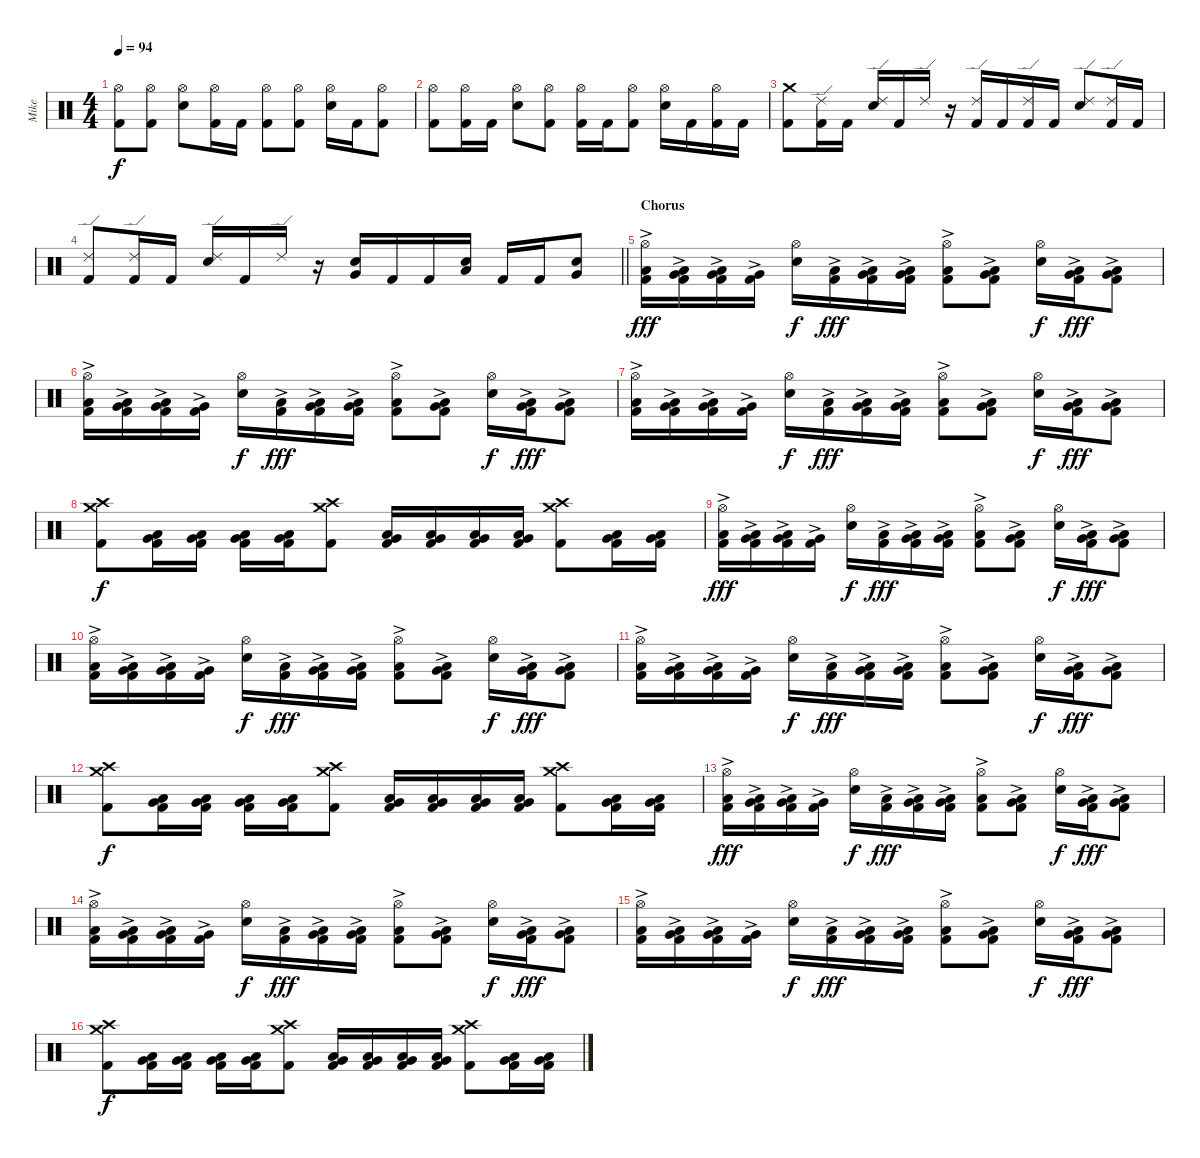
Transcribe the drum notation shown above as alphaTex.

\track ("Mike" "Mike") {instrument percussion}
\staff {score}
\articulation defaults
\ts (4 4)
\tempo 94
\clef neutral
\ks c
("Hi-Hat (open)" "Kick (hit) 2").8{dy f} ("Hi-Hat (open)" "Kick (hit) 2").8 ("Hi-Hat (open)" "Snare (hit) 2").8 ("Hi-Hat (open)" "Kick (hit) 2").16 "Kick (hit) 2".16 ("Hi-Hat (open)" "Kick (hit) 2").8 ("Hi-Hat (open)" "Kick (hit) 2").8 ("Hi-Hat (open)" "Snare (hit) 2").16 "Kick (hit) 2".16 ("Hi-Hat (open)" "Kick (hit) 2").8 |
("Hi-Hat (open)" "Kick (hit) 2").8 ("Hi-Hat (open)" "Kick (hit) 2").16 "Kick (hit) 2".16 ("Hi-Hat (open)" "Snare (hit) 2").8 ("Hi-Hat (open)" "Kick (hit) 2").8 ("Hi-Hat (open)" "Kick (hit) 2").16 "Kick (hit) 2".16 ("Hi-Hat (open)" "Kick (hit) 2").8 ("Hi-Hat (open)" "Snare (hit) 2").16 "Kick (hit) 2".16 ("Hi-Hat (open)" "Kick (hit) 2").16 "Kick (hit) 2".16 |
("Crash medium (hit)" "Kick (hit) 2").8 ("Ride (edge) 2" "Kick (hit) 2").16 "Kick (hit) 2".16 ("Ride (edge) 2" "Snare (hit) 2").16 "Kick (hit) 2".16 "Ride (edge) 2".16 r.16 ("Ride (edge) 2" "Kick (hit) 2").16 "Kick (hit) 2".16 ("Ride (edge) 2" "Kick (hit) 2").16 "Kick (hit) 2".16 ("Ride (edge) 2" "Snare (hit) 2").8 ("Ride (edge) 2" "Kick (hit) 2").16 "Kick (hit) 2".16 |
\barLineRight lightlight
("Ride (edge) 2" "Kick (hit) 2").8 ("Ride (edge) 2" "Kick (hit) 2").16 "Kick (hit) 2".16 ("Ride (edge) 2" "Snare (hit) 2").16 "Kick (hit) 2".16 "Ride (edge) 2".16 r.16 ("Very Low Tom (hit)" "Snare (hit) 2").16 "Kick (hit) 2".16 "Kick (hit) 2".16 ("Low Tom (hit)" "Snare (hit) 2").16 "Kick (hit) 2".16 "Kick (hit) 2".16 ("Very Low Tom (hit)" "Snare (hit) 2").8 |
\section ("" "Chorus")
("Hi-Hat (open)" "Low Tom (hit)"{ac} "Kick (hit) 2").16{dy fff} ("Low Tom (hit)"{ac} "Very Low Tom (hit)"{ac} "Kick (hit) 2").16 ("Very Low Tom (hit)"{ac} "Low Floor Tom (hit)"{ac} "Kick (hit) 2").16 ("Very Low Tom (hit)"{ac} "Kick (hit) 2").16 ("Hi-Hat (open)" "Snare (hit) 2").16{dy f} ("Low Tom (hit)"{ac} "Kick (hit) 2").16{dy fff} ("Low Tom (hit)"{ac} "Very Low Tom (hit)"{ac} "Kick (hit) 2").16 ("Very Low Tom (hit)"{ac} "Low Floor Tom (hit)"{ac} "Kick (hit) 2").16 ("Hi-Hat (open)" "Low Floor Tom (hit)"{ac} "Kick (hit) 2").8 ("Very Low Tom (hit)"{ac} "Low Floor Tom (hit)"{ac} "Kick (hit) 2").8 ("Hi-Hat (open)" "Snare (hit) 2").16{dy f} ("Very Low Tom (hit)"{ac} "Low Floor Tom (hit)"{ac} "Kick (hit) 2").16{dy fff} ("Very Low Tom (hit)"{ac} "Low Tom (hit)"{ac} "Kick (hit) 2").8 |
("Hi-Hat (open)" "Low Tom (hit)"{ac} "Kick (hit) 2").16 ("Low Tom (hit)"{ac} "Very Low Tom (hit)"{ac} "Kick (hit) 2").16 ("Very Low Tom (hit)"{ac} "Low Floor Tom (hit)"{ac} "Kick (hit) 2").16 ("Very Low Tom (hit)"{ac} "Kick (hit) 2").16 ("Hi-Hat (open)" "Snare (hit) 2").16{dy f} ("Low Tom (hit)"{ac} "Kick (hit) 2").16{dy fff} ("Low Tom (hit)"{ac} "Very Low Tom (hit)"{ac} "Kick (hit) 2").16 ("Very Low Tom (hit)"{ac} "Low Floor Tom (hit)"{ac} "Kick (hit) 2").16 ("Hi-Hat (open)" "Low Floor Tom (hit)"{ac} "Kick (hit) 2").8 ("Very Low Tom (hit)"{ac} "Low Floor Tom (hit)"{ac} "Kick (hit) 2").8 ("Hi-Hat (open)" "Snare (hit) 2").16{dy f} ("Very Low Tom (hit)"{ac} "Low Floor Tom (hit)"{ac} "Kick (hit) 2").16{dy fff} ("Very Low Tom (hit)"{ac} "Low Tom (hit)"{ac} "Kick (hit) 2").8 |
("Hi-Hat (open)" "Low Tom (hit)"{ac} "Kick (hit) 2").16 ("Low Tom (hit)"{ac} "Very Low Tom (hit)"{ac} "Kick (hit) 2").16 ("Very Low Tom (hit)"{ac} "Low Floor Tom (hit)"{ac} "Kick (hit) 2").16 ("Very Low Tom (hit)"{ac} "Kick (hit) 2").16 ("Hi-Hat (open)" "Snare (hit) 2").16{dy f} ("Low Tom (hit)"{ac} "Kick (hit) 2").16{dy fff} ("Low Tom (hit)"{ac} "Very Low Tom (hit)"{ac} "Kick (hit) 2").16 ("Very Low Tom (hit)"{ac} "Low Floor Tom (hit)"{ac} "Kick (hit) 2").16 ("Hi-Hat (open)" "Low Floor Tom (hit)"{ac} "Kick (hit) 2").8 ("Very Low Tom (hit)"{ac} "Low Floor Tom (hit)"{ac} "Kick (hit) 2").8 ("Hi-Hat (open)" "Snare (hit) 2").16{dy f} ("Very Low Tom (hit)"{ac} "Low Floor Tom (hit)"{ac} "Kick (hit) 2").16{dy fff} ("Very Low Tom (hit)"{ac} "Low Tom (hit)"{ac} "Kick (hit) 2").8 |
("Crash medium (hit)" "Crash high (hit)" "Kick (hit) 2").8{dy f} ("Low Tom (hit)" "Very Low Tom (hit)" "Kick (hit) 2").16 ("Low Tom (hit)" "Very Low Tom (hit)" "Kick (hit) 2").16 ("Low Tom (hit)" "Very Low Tom (hit)" "Kick (hit) 2").16 ("Low Tom (hit)" "Very Low Tom (hit)" "Kick (hit) 2").16 ("Crash medium (hit)" "Crash high (hit)" "Kick (hit) 2").8 ("Low Tom (hit)" "Very Low Tom (hit)" "Kick (hit) 2").16 ("Low Tom (hit)" "Very Low Tom (hit)" "Kick (hit) 2").16 ("Low Tom (hit)" "Very Low Tom (hit)" "Kick (hit) 2").16 ("Low Tom (hit)" "Very Low Tom (hit)" "Kick (hit) 2").16 ("Crash medium (hit)" "Crash high (hit)" "Kick (hit) 2").8 ("Low Tom (hit)" "Very Low Tom (hit)" "Kick (hit) 2").16 ("Low Tom (hit)" "Very Low Tom (hit)" "Kick (hit) 2").16 |
("Hi-Hat (open)" "Low Tom (hit)"{ac} "Kick (hit) 2").16{dy fff} ("Low Tom (hit)"{ac} "Very Low Tom (hit)"{ac} "Kick (hit) 2").16 ("Very Low Tom (hit)"{ac} "Low Floor Tom (hit)"{ac} "Kick (hit) 2").16 ("Very Low Tom (hit)"{ac} "Kick (hit) 2").16 ("Hi-Hat (open)" "Snare (hit) 2").16{dy f} ("Low Tom (hit)"{ac} "Kick (hit) 2").16{dy fff} ("Low Tom (hit)"{ac} "Very Low Tom (hit)"{ac} "Kick (hit) 2").16 ("Very Low Tom (hit)"{ac} "Low Floor Tom (hit)"{ac} "Kick (hit) 2").16 ("Hi-Hat (open)" "Low Floor Tom (hit)"{ac} "Kick (hit) 2").8 ("Very Low Tom (hit)"{ac} "Low Floor Tom (hit)"{ac} "Kick (hit) 2").8 ("Hi-Hat (open)" "Snare (hit) 2").16{dy f} ("Very Low Tom (hit)"{ac} "Low Floor Tom (hit)"{ac} "Kick (hit) 2").16{dy fff} ("Very Low Tom (hit)"{ac} "Low Tom (hit)"{ac} "Kick (hit) 2").8 |
("Hi-Hat (open)" "Low Tom (hit)"{ac} "Kick (hit) 2").16 ("Low Tom (hit)"{ac} "Very Low Tom (hit)"{ac} "Kick (hit) 2").16 ("Very Low Tom (hit)"{ac} "Low Floor Tom (hit)"{ac} "Kick (hit) 2").16 ("Very Low Tom (hit)"{ac} "Kick (hit) 2").16 ("Hi-Hat (open)" "Snare (hit) 2").16{dy f} ("Low Tom (hit)"{ac} "Kick (hit) 2").16{dy fff} ("Low Tom (hit)"{ac} "Very Low Tom (hit)"{ac} "Kick (hit) 2").16 ("Very Low Tom (hit)"{ac} "Low Floor Tom (hit)"{ac} "Kick (hit) 2").16 ("Hi-Hat (open)" "Low Floor Tom (hit)"{ac} "Kick (hit) 2").8 ("Very Low Tom (hit)"{ac} "Low Floor Tom (hit)"{ac} "Kick (hit) 2").8 ("Hi-Hat (open)" "Snare (hit) 2").16{dy f} ("Very Low Tom (hit)"{ac} "Low Floor Tom (hit)"{ac} "Kick (hit) 2").16{dy fff} ("Very Low Tom (hit)"{ac} "Low Tom (hit)"{ac} "Kick (hit) 2").8 |
("Hi-Hat (open)" "Low Tom (hit)"{ac} "Kick (hit) 2").16 ("Low Tom (hit)"{ac} "Very Low Tom (hit)"{ac} "Kick (hit) 2").16 ("Very Low Tom (hit)"{ac} "Low Floor Tom (hit)"{ac} "Kick (hit) 2").16 ("Very Low Tom (hit)"{ac} "Kick (hit) 2").16 ("Hi-Hat (open)" "Snare (hit) 2").16{dy f} ("Low Tom (hit)"{ac} "Kick (hit) 2").16{dy fff} ("Low Tom (hit)"{ac} "Very Low Tom (hit)"{ac} "Kick (hit) 2").16 ("Very Low Tom (hit)"{ac} "Low Floor Tom (hit)"{ac} "Kick (hit) 2").16 ("Hi-Hat (open)" "Low Floor Tom (hit)"{ac} "Kick (hit) 2").8 ("Very Low Tom (hit)"{ac} "Low Floor Tom (hit)"{ac} "Kick (hit) 2").8 ("Hi-Hat (open)" "Snare (hit) 2").16{dy f} ("Very Low Tom (hit)"{ac} "Low Floor Tom (hit)"{ac} "Kick (hit) 2").16{dy fff} ("Very Low Tom (hit)"{ac} "Low Tom (hit)"{ac} "Kick (hit) 2").8 |
("Crash medium (hit)" "Crash high (hit)" "Kick (hit) 2").8{dy f} ("Low Tom (hit)" "Very Low Tom (hit)" "Kick (hit) 2").16 ("Low Tom (hit)" "Very Low Tom (hit)" "Kick (hit) 2").16 ("Low Tom (hit)" "Very Low Tom (hit)" "Kick (hit) 2").16 ("Low Tom (hit)" "Very Low Tom (hit)" "Kick (hit) 2").16 ("Crash medium (hit)" "Crash high (hit)" "Kick (hit) 2").8 ("Low Tom (hit)" "Very Low Tom (hit)" "Kick (hit) 2").16 ("Low Tom (hit)" "Very Low Tom (hit)" "Kick (hit) 2").16 ("Low Tom (hit)" "Very Low Tom (hit)" "Kick (hit) 2").16 ("Low Tom (hit)" "Very Low Tom (hit)" "Kick (hit) 2").16 ("Crash medium (hit)" "Crash high (hit)" "Kick (hit) 2").8 ("Low Tom (hit)" "Very Low Tom (hit)" "Kick (hit) 2").16 ("Low Tom (hit)" "Very Low Tom (hit)" "Kick (hit) 2").16 |
("Hi-Hat (open)" "Low Tom (hit)"{ac} "Kick (hit) 2").16{dy fff} ("Low Tom (hit)"{ac} "Very Low Tom (hit)"{ac} "Kick (hit) 2").16 ("Very Low Tom (hit)"{ac} "Low Floor Tom (hit)"{ac} "Kick (hit) 2").16 ("Very Low Tom (hit)"{ac} "Kick (hit) 2").16 ("Hi-Hat (open)" "Snare (hit) 2").16{dy f} ("Low Tom (hit)"{ac} "Kick (hit) 2").16{dy fff} ("Low Tom (hit)"{ac} "Very Low Tom (hit)"{ac} "Kick (hit) 2").16 ("Very Low Tom (hit)"{ac} "Low Floor Tom (hit)"{ac} "Kick (hit) 2").16 ("Hi-Hat (open)" "Low Floor Tom (hit)"{ac} "Kick (hit) 2").8 ("Very Low Tom (hit)"{ac} "Low Floor Tom (hit)"{ac} "Kick (hit) 2").8 ("Hi-Hat (open)" "Snare (hit) 2").16{dy f} ("Very Low Tom (hit)"{ac} "Low Floor Tom (hit)"{ac} "Kick (hit) 2").16{dy fff} ("Very Low Tom (hit)"{ac} "Low Tom (hit)"{ac} "Kick (hit) 2").8 |
("Hi-Hat (open)" "Low Tom (hit)"{ac} "Kick (hit) 2").16 ("Low Tom (hit)"{ac} "Very Low Tom (hit)"{ac} "Kick (hit) 2").16 ("Very Low Tom (hit)"{ac} "Low Floor Tom (hit)"{ac} "Kick (hit) 2").16 ("Very Low Tom (hit)"{ac} "Kick (hit) 2").16 ("Hi-Hat (open)" "Snare (hit) 2").16{dy f} ("Low Tom (hit)"{ac} "Kick (hit) 2").16{dy fff} ("Low Tom (hit)"{ac} "Very Low Tom (hit)"{ac} "Kick (hit) 2").16 ("Very Low Tom (hit)"{ac} "Low Floor Tom (hit)"{ac} "Kick (hit) 2").16 ("Hi-Hat (open)" "Low Floor Tom (hit)"{ac} "Kick (hit) 2").8 ("Very Low Tom (hit)"{ac} "Low Floor Tom (hit)"{ac} "Kick (hit) 2").8 ("Hi-Hat (open)" "Snare (hit) 2").16{dy f} ("Very Low Tom (hit)"{ac} "Low Floor Tom (hit)"{ac} "Kick (hit) 2").16{dy fff} ("Very Low Tom (hit)"{ac} "Low Tom (hit)"{ac} "Kick (hit) 2").8 |
("Hi-Hat (open)" "Low Tom (hit)"{ac} "Kick (hit) 2").16 ("Low Tom (hit)"{ac} "Very Low Tom (hit)"{ac} "Kick (hit) 2").16 ("Very Low Tom (hit)"{ac} "Low Floor Tom (hit)"{ac} "Kick (hit) 2").16 ("Very Low Tom (hit)"{ac} "Kick (hit) 2").16 ("Hi-Hat (open)" "Snare (hit) 2").16{dy f} ("Low Tom (hit)"{ac} "Kick (hit) 2").16{dy fff} ("Low Tom (hit)"{ac} "Very Low Tom (hit)"{ac} "Kick (hit) 2").16 ("Very Low Tom (hit)"{ac} "Low Floor Tom (hit)"{ac} "Kick (hit) 2").16 ("Hi-Hat (open)" "Low Floor Tom (hit)"{ac} "Kick (hit) 2").8 ("Very Low Tom (hit)"{ac} "Low Floor Tom (hit)"{ac} "Kick (hit) 2").8 ("Hi-Hat (open)" "Snare (hit) 2").16{dy f} ("Very Low Tom (hit)"{ac} "Low Floor Tom (hit)"{ac} "Kick (hit) 2").16{dy fff} ("Very Low Tom (hit)"{ac} "Low Tom (hit)"{ac} "Kick (hit) 2").8 |
("Crash medium (hit)" "Crash high (hit)" "Kick (hit) 2").8{dy f} ("Low Tom (hit)" "Very Low Tom (hit)" "Kick (hit) 2").16 ("Low Tom (hit)" "Very Low Tom (hit)" "Kick (hit) 2").16 ("Low Tom (hit)" "Very Low Tom (hit)" "Kick (hit) 2").16 ("Low Tom (hit)" "Very Low Tom (hit)" "Kick (hit) 2").16 ("Crash medium (hit)" "Crash high (hit)" "Kick (hit) 2").8 ("Low Tom (hit)" "Very Low Tom (hit)" "Kick (hit) 2").16 ("Low Tom (hit)" "Very Low Tom (hit)" "Kick (hit) 2").16 ("Low Tom (hit)" "Very Low Tom (hit)" "Kick (hit) 2").16 ("Low Tom (hit)" "Very Low Tom (hit)" "Kick (hit) 2").16 ("Crash medium (hit)" "Crash high (hit)" "Kick (hit) 2").8 ("Low Tom (hit)" "Very Low Tom (hit)" "Kick (hit) 2").16 ("Low Tom (hit)" "Very Low Tom (hit)" "Kick (hit) 2").16
